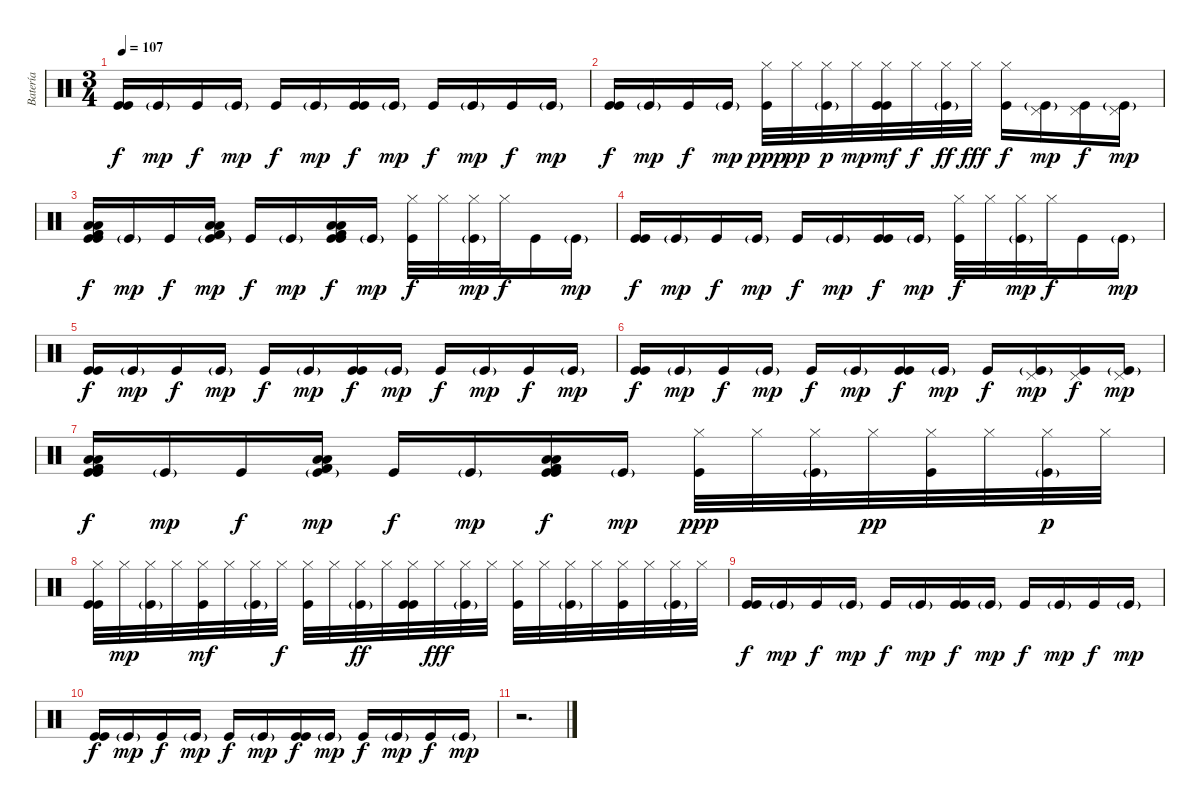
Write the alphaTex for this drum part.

\track ("Batería" "Batería") {instrument percussion}
\staff {score}
\articulation defaults
\ts (3 4)
\tempo 107
\clef neutral
\ks c
("Kick (hit)" "Kick (hit)").16{dy f} "Kick (hit)"{g}.16{dy mp} "Kick (hit)".16{dy f} "Kick (hit)"{g}.16{dy mp} "Kick (hit)".16{dy f} "Kick (hit)"{g}.16{dy mp} ("Kick (hit)" "Kick (hit)").16{dy f} "Kick (hit)"{g}.16{dy mp} "Kick (hit)".16{dy f} "Kick (hit)"{g}.16{dy mp} "Kick (hit)".16{dy f} "Kick (hit)"{g}.16{dy mp} |
("Kick (hit)" "Kick (hit)").16{dy f} "Kick (hit)"{g}.16{dy mp} "Kick (hit)".16{dy f} "Kick (hit)"{g}.16{dy mp} ("Kick (hit)" "Hi-Hat (closed)").32{dy ppp} "Hi-Hat (closed)".32{dy pp} ("Kick (hit)"{g} "Hi-Hat (closed)").32{dy p} "Hi-Hat (closed)".32{dy mp} ("Kick (hit)" "Kick (hit)" "Hi-Hat (closed)").32{dy mf} "Hi-Hat (closed)".32{dy f} ("Kick (hit)"{g} "Hi-Hat (closed)").32{dy ff} "Hi-Hat (closed)".32{dy fff} ("Kick (hit)" "Hi-Hat (closed)").16{dy f} ("Kick (hit)"{g} "Pedal Hi-Hat (hit)").16{dy mp} ("Kick (hit)" "Pedal Hi-Hat (hit)").16{dy f} ("Kick (hit)"{g} "Pedal Hi-Hat (hit)").16{dy mp} |
("Kick (hit)" "Kick (hit)" "Low Floor Tom (hit)" "Low Floor Tom (hit)" "Kick (hit) 2" "Kick (hit) 2").16{dy f} "Kick (hit)"{g}.16{dy mp} "Kick (hit)".16{dy f} ("Kick (hit)"{g} "Low Floor Tom (hit)" "Low Floor Tom (hit)" "Kick (hit) 2" "Kick (hit) 2").16{dy mp} "Kick (hit)".16{dy f} "Kick (hit)"{g}.16{dy mp} ("Kick (hit)" "Kick (hit)" "Low Floor Tom (hit)" "Low Floor Tom (hit)" "Kick (hit) 2" "Kick (hit) 2").16{dy f} "Kick (hit)"{g}.16{dy mp} ("Kick (hit)" "Hi-Hat (closed)").32{dy f} "Hi-Hat (closed)".32 ("Kick (hit)"{g} "Hi-Hat (closed)").32{dy mp} "Hi-Hat (closed)".32{dy f} "Kick (hit)".16 "Kick (hit)"{g}.16{dy mp} |
("Kick (hit)" "Kick (hit)").16{dy f} "Kick (hit)"{g}.16{dy mp} "Kick (hit)".16{dy f} "Kick (hit)"{g}.16{dy mp} "Kick (hit)".16{dy f} "Kick (hit)"{g}.16{dy mp} ("Kick (hit)" "Kick (hit)").16{dy f} "Kick (hit)"{g}.16{dy mp} ("Kick (hit)" "Hi-Hat (closed)").32{dy f} "Hi-Hat (closed)".32 ("Kick (hit)"{g} "Hi-Hat (closed)").32{dy mp} "Hi-Hat (closed)".32{dy f} "Kick (hit)".16 "Kick (hit)"{g}.16{dy mp} |
("Kick (hit)" "Kick (hit)").16{dy f} "Kick (hit)"{g}.16{dy mp} "Kick (hit)".16{dy f} "Kick (hit)"{g}.16{dy mp} "Kick (hit)".16{dy f} "Kick (hit)"{g}.16{dy mp} ("Kick (hit)" "Kick (hit)").16{dy f} "Kick (hit)"{g}.16{dy mp} "Kick (hit)".16{dy f} "Kick (hit)"{g}.16{dy mp} "Kick (hit)".16{dy f} "Kick (hit)"{g}.16{dy mp} |
("Kick (hit)" "Kick (hit)").16{dy f} "Kick (hit)"{g}.16{dy mp} "Kick (hit)".16{dy f} "Kick (hit)"{g}.16{dy mp} "Kick (hit)".16{dy f} "Kick (hit)"{g}.16{dy mp} ("Kick (hit)" "Kick (hit)").16{dy f} "Kick (hit)"{g}.16{dy mp} "Kick (hit)".16{dy f} ("Kick (hit)"{g} "Pedal Hi-Hat (hit)").16{dy mp} ("Kick (hit)" "Pedal Hi-Hat (hit)").16{dy f} ("Kick (hit)"{g} "Pedal Hi-Hat (hit)").16{dy mp} |
("Kick (hit)" "Kick (hit)" "Low Floor Tom (hit)" "Low Floor Tom (hit)" "Kick (hit) 2" "Kick (hit) 2").16{dy f} "Kick (hit)"{g}.16{dy mp} "Kick (hit)".16{dy f} ("Kick (hit)"{g} "Low Floor Tom (hit)" "Low Floor Tom (hit)" "Kick (hit) 2" "Kick (hit) 2").16{dy mp} "Kick (hit)".16{dy f} "Kick (hit)"{g}.16{dy mp} ("Kick (hit)" "Kick (hit)" "Low Floor Tom (hit)" "Low Floor Tom (hit)" "Kick (hit) 2" "Kick (hit) 2").16{dy f} "Kick (hit)"{g}.16{dy mp} ("Kick (hit)" "Hi-Hat (closed)").32{dy ppp} "Hi-Hat (closed)".32 ("Kick (hit)"{g} "Hi-Hat (closed)").32 "Hi-Hat (closed)".32{dy pp} ("Kick (hit)" "Hi-Hat (closed)").32 "Hi-Hat (closed)".32 ("Kick (hit)"{g} "Hi-Hat (closed)").32{dy p} "Hi-Hat (closed)".32 |
("Kick (hit)" "Kick (hit)" "Hi-Hat (closed)").32 "Hi-Hat (closed)".32{dy mp} ("Kick (hit)"{g} "Hi-Hat (closed)").32 "Hi-Hat (closed)".32 ("Kick (hit)" "Hi-Hat (closed)").32{dy mf} "Hi-Hat (closed)".32 ("Kick (hit)"{g} "Hi-Hat (closed)").32 "Hi-Hat (closed)".32{dy f} ("Kick (hit)" "Hi-Hat (closed)").32 "Hi-Hat (closed)".32 ("Kick (hit)"{g} "Hi-Hat (closed)").32{dy ff} "Hi-Hat (closed)".32 ("Kick (hit)" "Kick (hit)" "Hi-Hat (closed)").32 "Hi-Hat (closed)".32{dy fff} ("Kick (hit)"{g} "Hi-Hat (closed)").32 "Hi-Hat (closed)".32 ("Kick (hit)" "Hi-Hat (closed)").32 "Hi-Hat (closed)".32 ("Kick (hit)"{g} "Hi-Hat (closed)").32 "Hi-Hat (closed)".32 ("Kick (hit)" "Hi-Hat (closed)").32 "Hi-Hat (closed)".32 ("Kick (hit)"{g} "Hi-Hat (closed)").32 "Hi-Hat (closed)".32 |
("Kick (hit)" "Kick (hit)").16{dy f} "Kick (hit)"{g}.16{dy mp} "Kick (hit)".16{dy f} "Kick (hit)"{g}.16{dy mp} "Kick (hit)".16{dy f} "Kick (hit)"{g}.16{dy mp} ("Kick (hit)" "Kick (hit)").16{dy f} "Kick (hit)"{g}.16{dy mp} "Kick (hit)".16{dy f} "Kick (hit)"{g}.16{dy mp} "Kick (hit)".16{dy f} "Kick (hit)"{g}.16{dy mp} |
("Kick (hit)" "Kick (hit)").16{dy f} "Kick (hit)"{g}.16{dy mp} "Kick (hit)".16{dy f} "Kick (hit)"{g}.16{dy mp} "Kick (hit)".16{dy f} "Kick (hit)"{g}.16{dy mp} ("Kick (hit)" "Kick (hit)").16{dy f} "Kick (hit)"{g}.16{dy mp} "Kick (hit)".16{dy f} "Kick (hit)"{g}.16{dy mp} "Kick (hit)".16{dy f} "Kick (hit)"{g}.16{dy mp} |
r.2{d}
